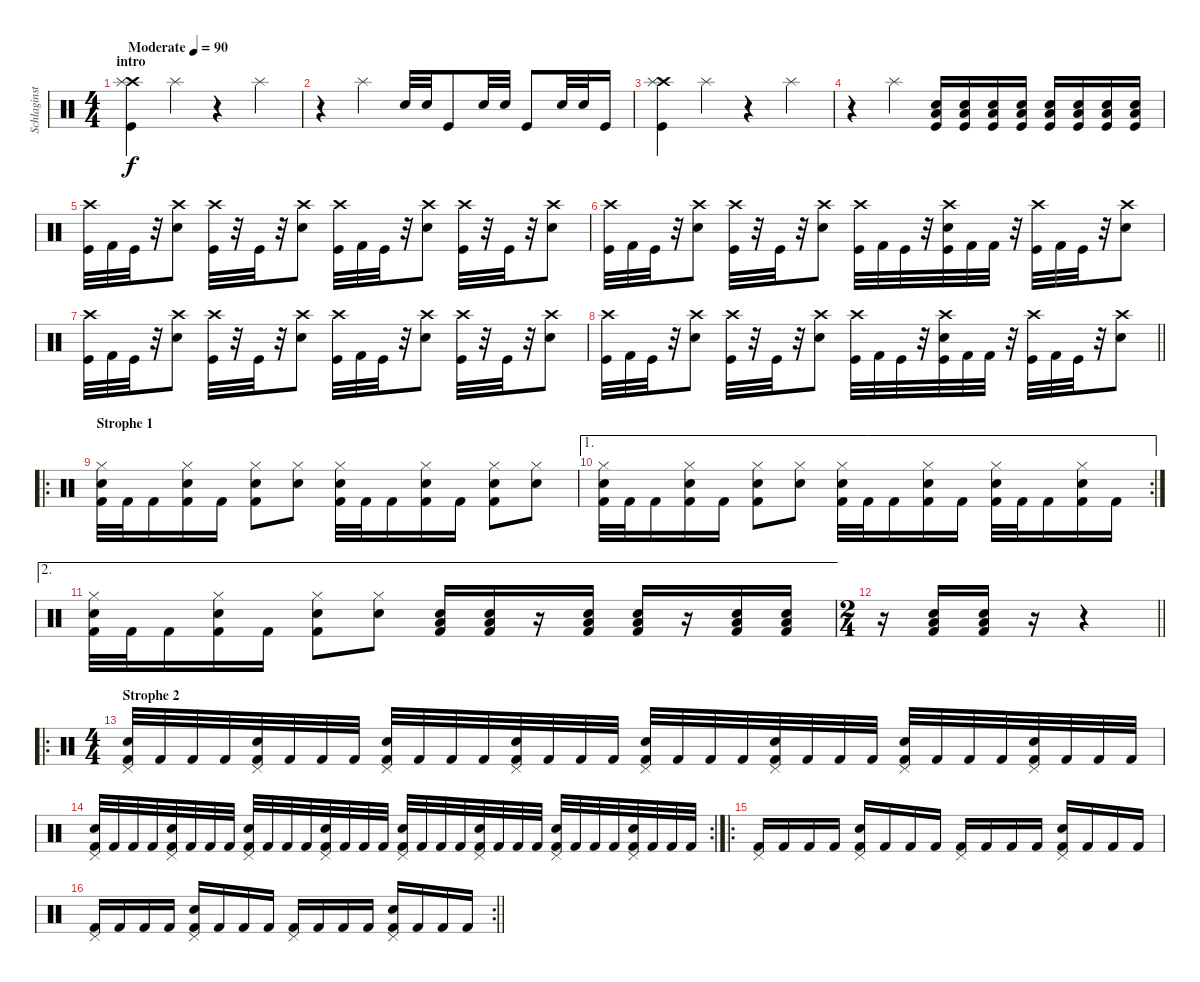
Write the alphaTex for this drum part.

\track ("Schlaginstrumente - Auswahl" "Schlaginst") {instrument percussion}
\staff {score}
\articulation defaults
\ts (4 4)
\section ("" "intro")
\tempo (90 "Moderate")
\clef neutral
\ks c
("Crash high (hit)" "Splash (hit)" "Kick (hit)").4{dy f} "Splash (hit)".4 r.4 "Splash (hit)".4 |
r.4 "Splash (hit)".4 "Snare (hit) 2".32 "Snare (hit) 2".32 "Kick (hit)".8 "Snare (hit) 2".32 "Snare (hit) 2".32 "Kick (hit)".8 "Snare (hit) 2".32 "Snare (hit) 2".32 "Kick (hit)".16 |
("Crash high (hit)" "Splash (hit)" "Kick (hit)").4 "Splash (hit)".4 r.4 "Splash (hit)".4 |
r.4 "Splash (hit)".4 ("Low Floor Tom (hit)" "Snare (hit) 2" "Kick (hit)").16 ("Low Floor Tom (hit)" "Snare (hit) 2" "Kick (hit)").16 ("Low Floor Tom (hit)" "Snare (hit) 2" "Kick (hit)").16 ("Low Floor Tom (hit)" "Snare (hit) 2" "Kick (hit)").16 ("Low Floor Tom (hit)" "Snare (hit) 2" "Kick (hit)").16 ("Low Floor Tom (hit)" "Snare (hit) 2" "Kick (hit)").16 ("Low Floor Tom (hit)" "Snare (hit) 2" "Kick (hit)").16 ("Low Floor Tom (hit)" "Snare (hit) 2" "Kick (hit)").16 |
("Crash high (hit)" "Kick (hit)").32 "Kick (hit) 2".32 "Kick (hit)".32 r.32 ("Crash high (hit)" "Snare (hit) 2").8 ("Crash high (hit)" "Kick (hit)").32 r.32 "Kick (hit)".32 r.32 ("Crash high (hit)" "Snare (hit) 2").8 ("Crash high (hit)" "Kick (hit)").32 "Kick (hit) 2".32 "Kick (hit)".32 r.32 ("Crash high (hit)" "Snare (hit) 2").8 ("Crash high (hit)" "Kick (hit)").32 r.32 "Kick (hit)".32 r.32 ("Crash high (hit)" "Snare (hit) 2").8 |
("Crash high (hit)" "Kick (hit)").32 "Kick (hit) 2".32 "Kick (hit)".32 r.32 ("Crash high (hit)" "Snare (hit) 2").8 ("Crash high (hit)" "Kick (hit)").32 r.32 "Kick (hit)".32 r.32 ("Crash high (hit)" "Snare (hit) 2").8 ("Crash high (hit)" "Kick (hit)").32 "Kick (hit) 2".32 "Kick (hit)".32 r.32 ("Crash high (hit)" "Snare (hit) 2" "Kick (hit)").32 "Kick (hit) 2".32 "Kick (hit) 2".32 r.32 ("Crash high (hit)" "Kick (hit)").32 "Kick (hit) 2".32 "Kick (hit)".32 r.32 ("Crash high (hit)" "Snare (hit) 2").8 |
("Crash high (hit)" "Kick (hit)").32 "Kick (hit) 2".32 "Kick (hit)".32 r.32 ("Crash high (hit)" "Snare (hit) 2").8 ("Crash high (hit)" "Kick (hit)").32 r.32 "Kick (hit)".32 r.32 ("Crash high (hit)" "Snare (hit) 2").8 ("Crash high (hit)" "Kick (hit)").32 "Kick (hit) 2".32 "Kick (hit)".32 r.32 ("Crash high (hit)" "Snare (hit) 2").8 ("Crash high (hit)" "Kick (hit)").32 r.32 "Kick (hit)".32 r.32 ("Crash high (hit)" "Snare (hit) 2").8 |
\barLineRight lightlight
("Crash high (hit)" "Kick (hit)").32 "Kick (hit) 2".32 "Kick (hit)".32 r.32 ("Crash high (hit)" "Snare (hit) 2").8 ("Crash high (hit)" "Kick (hit)").32 r.32 "Kick (hit)".32 r.32 ("Crash high (hit)" "Snare (hit) 2").8 ("Crash high (hit)" "Kick (hit)").32 "Kick (hit) 2".32 "Kick (hit)".32 r.32 ("Crash high (hit)" "Snare (hit) 2" "Kick (hit)").32 "Kick (hit) 2".32 "Kick (hit) 2".32 r.32 ("Crash high (hit)" "Kick (hit)").32 "Kick (hit) 2".32 "Kick (hit)".32 r.32 ("Crash high (hit)" "Snare (hit) 2").8 |
\ro
\section ("" "Strophe 1")
("Hi-Hat (closed)" "Snare (hit) 2" "Kick (hit) 2").32 "Kick (hit) 2".32 "Kick (hit) 2".16 ("Hi-Hat (closed)" "Snare (hit) 2" "Kick (hit) 2").16 "Kick (hit) 2".16 ("Hi-Hat (closed)" "Snare (hit) 2" "Kick (hit) 2").8 ("Hi-Hat (closed)" "Snare (hit) 2").8 ("Hi-Hat (closed)" "Snare (hit) 2" "Kick (hit) 2").32 "Kick (hit) 2".32 "Kick (hit) 2".16 ("Hi-Hat (closed)" "Snare (hit) 2" "Kick (hit) 2").16 "Kick (hit) 2".16 ("Hi-Hat (closed)" "Snare (hit) 2" "Kick (hit) 2").8 ("Hi-Hat (closed)" "Snare (hit) 2").8 |
\ae 1
\rc 2
("Hi-Hat (closed)" "Snare (hit) 2" "Kick (hit) 2").32 "Kick (hit) 2".32 "Kick (hit) 2".16 ("Hi-Hat (closed)" "Snare (hit) 2" "Kick (hit) 2").16 "Kick (hit) 2".16 ("Hi-Hat (closed)" "Snare (hit) 2" "Kick (hit) 2").8 ("Hi-Hat (closed)" "Snare (hit) 2").8 ("Hi-Hat (closed)" "Snare (hit) 2" "Kick (hit) 2").32 "Kick (hit) 2".32 "Kick (hit) 2".16 ("Hi-Hat (closed)" "Snare (hit) 2" "Kick (hit) 2").16 "Kick (hit) 2".16 ("Hi-Hat (closed)" "Snare (hit) 2" "Kick (hit) 2").32 "Kick (hit) 2".32 "Kick (hit) 2".16 ("Hi-Hat (closed)" "Snare (hit) 2" "Kick (hit) 2").16 "Kick (hit) 2".16 |
\ae 2
("Hi-Hat (closed)" "Snare (hit) 2" "Kick (hit) 2").32 "Kick (hit) 2".32 "Kick (hit) 2".16 ("Hi-Hat (closed)" "Snare (hit) 2" "Kick (hit) 2").16 "Kick (hit) 2".16 ("Hi-Hat (closed)" "Snare (hit) 2" "Kick (hit) 2").8 ("Hi-Hat (closed)" "Snare (hit) 2").8 ("Low Floor Tom (hit)" "Snare (hit) 2" "Kick (hit) 2").16 ("Low Floor Tom (hit)" "Snare (hit) 2" "Kick (hit) 2").16 r.16 ("Low Floor Tom (hit)" "Snare (hit) 2" "Kick (hit) 2").16 ("Low Floor Tom (hit)" "Snare (hit) 2" "Kick (hit) 2").16 r.16 ("Low Floor Tom (hit)" "Snare (hit) 2" "Kick (hit) 2").16 ("Low Floor Tom (hit)" "Snare (hit) 2" "Kick (hit) 2").16 |
\ts (2 4)
\barLineRight lightlight
r.16 ("Low Floor Tom (hit)" "Snare (hit) 2" "Kick (hit) 2").16 ("Low Floor Tom (hit)" "Snare (hit) 2" "Kick (hit) 2").16 r.16 r.4 |
\ro
\ts (4 4)
\section ("" "Strophe 2")
("Pedal Hi-Hat (hit)" "Snare (hit) 2" "Kick (hit) 2").32 "Kick (hit) 2".32 "Kick (hit) 2".32 "Kick (hit) 2".32 ("Pedal Hi-Hat (hit)" "Snare (hit) 2" "Kick (hit) 2").32 "Kick (hit) 2".32 "Kick (hit) 2".32 "Kick (hit) 2".32 ("Pedal Hi-Hat (hit)" "Snare (hit) 2" "Kick (hit) 2").32 "Kick (hit) 2".32 "Kick (hit) 2".32 "Kick (hit) 2".32 ("Pedal Hi-Hat (hit)" "Snare (hit) 2" "Kick (hit) 2").32 "Kick (hit) 2".32 "Kick (hit) 2".32 "Kick (hit) 2".32 ("Pedal Hi-Hat (hit)" "Snare (hit) 2" "Kick (hit) 2").32 "Kick (hit) 2".32 "Kick (hit) 2".32 "Kick (hit) 2".32 ("Pedal Hi-Hat (hit)" "Snare (hit) 2" "Kick (hit) 2").32 "Kick (hit) 2".32 "Kick (hit) 2".32 "Kick (hit) 2".32 ("Pedal Hi-Hat (hit)" "Snare (hit) 2" "Kick (hit) 2").32 "Kick (hit) 2".32 "Kick (hit) 2".32 "Kick (hit) 2".32 ("Pedal Hi-Hat (hit)" "Snare (hit) 2" "Kick (hit) 2").32 "Kick (hit) 2".32 "Kick (hit) 2".32 "Kick (hit) 2".32 |
\rc 2
("Pedal Hi-Hat (hit)" "Snare (hit) 2" "Kick (hit) 2").32 "Kick (hit) 2".32 "Kick (hit) 2".32 "Kick (hit) 2".32 ("Pedal Hi-Hat (hit)" "Snare (hit) 2" "Kick (hit) 2").32 "Kick (hit) 2".32 "Kick (hit) 2".32 "Kick (hit) 2".32 ("Pedal Hi-Hat (hit)" "Snare (hit) 2" "Kick (hit) 2").32 "Kick (hit) 2".32 "Kick (hit) 2".32 "Kick (hit) 2".32 ("Pedal Hi-Hat (hit)" "Snare (hit) 2" "Kick (hit) 2").32 "Kick (hit) 2".32 "Kick (hit) 2".32 "Kick (hit) 2".32 ("Pedal Hi-Hat (hit)" "Snare (hit) 2" "Kick (hit) 2").32 "Kick (hit) 2".32 "Kick (hit) 2".32 "Kick (hit) 2".32 ("Pedal Hi-Hat (hit)" "Snare (hit) 2" "Kick (hit) 2").32 "Kick (hit) 2".32 "Kick (hit) 2".32 "Kick (hit) 2".32 ("Pedal Hi-Hat (hit)" "Snare (hit) 2" "Kick (hit) 2").32 "Kick (hit) 2".32 "Kick (hit) 2".32 "Kick (hit) 2".32 ("Pedal Hi-Hat (hit)" "Snare (hit) 2" "Kick (hit) 2").32 "Kick (hit) 2".32 "Kick (hit) 2".32 "Kick (hit) 2".32 |
\ro
("Pedal Hi-Hat (hit)" "Kick (hit) 2").16 "Kick (hit) 2".16 "Kick (hit) 2".16 "Kick (hit) 2".16 ("Pedal Hi-Hat (hit)" "Snare (hit) 2" "Kick (hit) 2").16 "Kick (hit) 2".16 "Kick (hit) 2".16 "Kick (hit) 2".16 ("Pedal Hi-Hat (hit)" "Kick (hit) 2").16 "Kick (hit) 2".16 "Kick (hit) 2".16 "Kick (hit) 2".16 ("Pedal Hi-Hat (hit)" "Snare (hit) 2" "Kick (hit) 2").16 "Kick (hit) 2".16 "Kick (hit) 2".16 "Kick (hit) 2".16 |
\rc 2
\barLineRight lightlight
("Pedal Hi-Hat (hit)" "Kick (hit) 2").16 "Kick (hit) 2".16 "Kick (hit) 2".16 "Kick (hit) 2".16 ("Pedal Hi-Hat (hit)" "Snare (hit) 2" "Kick (hit) 2").16 "Kick (hit) 2".16 "Kick (hit) 2".16 "Kick (hit) 2".16 ("Pedal Hi-Hat (hit)" "Kick (hit) 2").16 "Kick (hit) 2".16 "Kick (hit) 2".16 "Kick (hit) 2".16 ("Pedal Hi-Hat (hit)" "Snare (hit) 2" "Kick (hit) 2").16 "Kick (hit) 2".16 "Kick (hit) 2".16 "Kick (hit) 2".16
